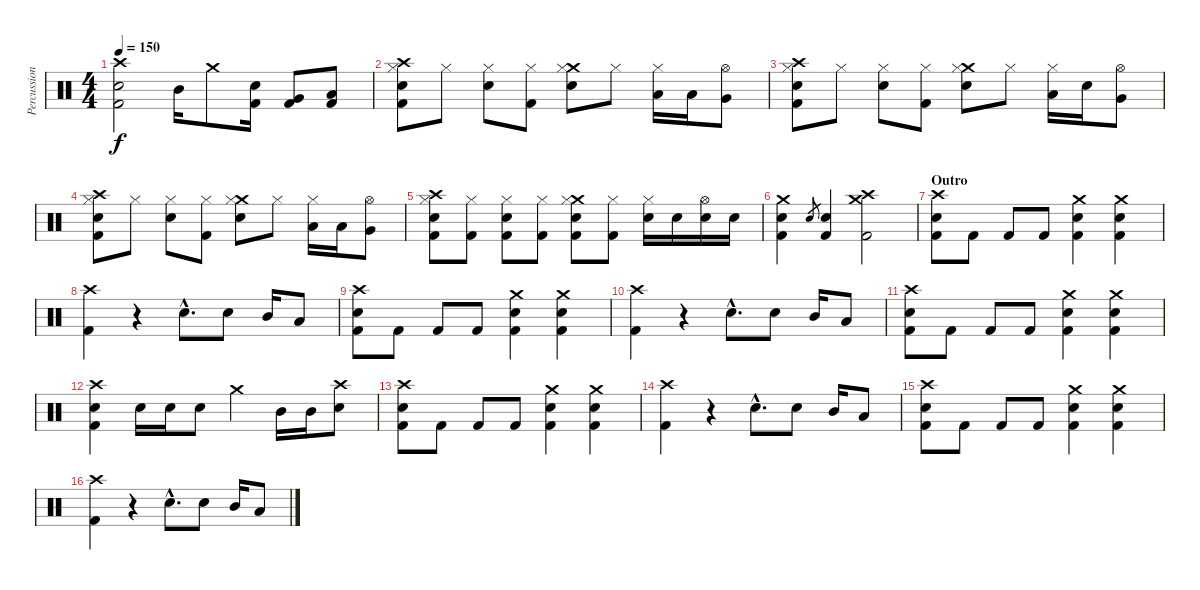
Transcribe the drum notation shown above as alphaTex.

\track ("Percussioni" "Percussion") {instrument percussion}
\staff {score}
\articulation defaults
\ts (4 4)
\tempo 150
\clef neutral
\ks c
("Crash high (hit)" "Snare (hit) 2" "Kick (hit) 2").2{dy f} "Mid Tom (hit)".16 "Crash medium (hit)".8 ("Snare (hit) 2" "Kick (hit) 2").16 ("Very Low Tom (hit)" "Kick (hit) 2").8 ("Low Tom (hit)" "Kick (hit) 2").8 |
("Crash high (hit)" "Snare (hit) 2" "Kick (hit) 2" "Hi-Hat (closed)").8 "Hi-Hat (closed)".8 ("Snare (hit) 2" "Hi-Hat (closed)").8 ("Kick (hit) 2" "Hi-Hat (closed)").8 ("Crash medium (hit)" "Snare (hit) 2" "Hi-Hat (closed)").8 "Hi-Hat (closed)".8 ("Low Tom (hit)" "Hi-Hat (closed)").16 "Low Tom (hit)".16 ("Very Low Tom (hit)" "Hi-Hat (open)").8 |
("Crash high (hit)" "Snare (hit) 2" "Kick (hit) 2" "Hi-Hat (closed)").8 "Hi-Hat (closed)".8 ("Snare (hit) 2" "Hi-Hat (closed)").8 ("Kick (hit) 2" "Hi-Hat (closed)").8 ("Crash medium (hit)" "Snare (hit) 2" "Hi-Hat (closed)").8 "Hi-Hat (closed)".8 ("Low Tom (hit)" "Hi-Hat (closed)").16 "Snare (hit) 2".16 ("Very Low Tom (hit)" "Hi-Hat (open)").8 |
("Crash high (hit)" "Snare (hit) 2" "Kick (hit) 2" "Hi-Hat (closed)").8 "Hi-Hat (closed)".8 ("Snare (hit) 2" "Hi-Hat (closed)").8 ("Kick (hit) 2" "Hi-Hat (closed)").8 ("Crash medium (hit)" "Snare (hit) 2" "Hi-Hat (closed)").8 "Hi-Hat (closed)".8 ("Low Tom (hit)" "Hi-Hat (closed)").16 "Low Tom (hit)".16 ("Very Low Tom (hit)" "Hi-Hat (open)").8 |
("Crash high (hit)" "Snare (hit) 2" "Kick (hit) 2" "Hi-Hat (closed)").8 ("Kick (hit) 2" "Hi-Hat (closed)").8 ("Snare (hit) 2" "Kick (hit) 2" "Hi-Hat (closed)").8 ("Kick (hit) 2" "Hi-Hat (closed)").8 ("Crash medium (hit)" "Snare (hit) 2" "Kick (hit) 2" "Hi-Hat (closed)").8 ("Kick (hit) 2" "Hi-Hat (closed)").8 ("Snare (hit) 2" "Hi-Hat (closed)").16 "Snare (hit) 2".16 ("Snare (hit) 2" "Hi-Hat (open)").16 "Snare (hit) 2".16 |
("Crash medium (hit)" "Snare (hit) 2" "Kick (hit) 2").4 "Snare (hit) 2".8{gr} ("Snare (hit) 2" "Kick (hit) 2").4 ("Crash medium (hit)" "Crash high (hit)" "Kick (hit) 2").2 |
\section ("" "Outro")
("Crash high (hit)" "Snare (hit) 2" "Kick (hit) 2").8 "Kick (hit) 2".8 "Kick (hit) 2".8 "Kick (hit) 2".8 ("Crash medium (hit)" "Snare (hit) 2" "Kick (hit) 2").4 ("Crash medium (hit)" "Snare (hit) 2" "Kick (hit) 2").4 |
("Crash high (hit)" "Kick (hit) 2").4 r.4 "Snare (hit) 2"{hac}.8{d} "Snare (hit) 2".8 "Mid Tom (hit)".16 "Low Tom (hit)".8 |
("Crash high (hit)" "Snare (hit) 2" "Kick (hit) 2").8 "Kick (hit) 2".8 "Kick (hit) 2".8 "Kick (hit) 2".8 ("Crash medium (hit)" "Snare (hit) 2" "Kick (hit) 2").4 ("Crash medium (hit)" "Snare (hit) 2" "Kick (hit) 2").4 |
("Crash high (hit)" "Kick (hit) 2").4 r.4 "Snare (hit) 2"{hac}.8{d} "Snare (hit) 2".8 "Mid Tom (hit)".16 "Low Tom (hit)".8 |
("Crash high (hit)" "Snare (hit) 2" "Kick (hit) 2").8 "Kick (hit) 2".8 "Kick (hit) 2".8 "Kick (hit) 2".8 ("Crash medium (hit)" "Snare (hit) 2" "Kick (hit) 2").4 ("Crash medium (hit)" "Snare (hit) 2" "Kick (hit) 2").4 |
("Crash high (hit)" "Snare (hit) 2" "Kick (hit) 2").4 "Snare (hit) 2".16 "Snare (hit) 2".16 "Snare (hit) 2".8 "Crash medium (hit)".4 "Mid Tom (hit)".16 "Mid Tom (hit)".16 ("Crash high (hit)" "Snare (hit) 2").8 |
("Crash high (hit)" "Snare (hit) 2" "Kick (hit) 2").8 "Kick (hit) 2".8 "Kick (hit) 2".8 "Kick (hit) 2".8 ("Crash medium (hit)" "Snare (hit) 2" "Kick (hit) 2").4 ("Crash medium (hit)" "Snare (hit) 2" "Kick (hit) 2").4 |
("Crash high (hit)" "Kick (hit) 2").4 r.4 "Snare (hit) 2"{hac}.8{d} "Snare (hit) 2".8 "Mid Tom (hit)".16 "Low Tom (hit)".8 |
("Crash high (hit)" "Snare (hit) 2" "Kick (hit) 2").8 "Kick (hit) 2".8 "Kick (hit) 2".8 "Kick (hit) 2".8 ("Crash medium (hit)" "Snare (hit) 2" "Kick (hit) 2").4 ("Crash medium (hit)" "Snare (hit) 2" "Kick (hit) 2").4 |
("Crash high (hit)" "Kick (hit) 2").4 r.4 "Snare (hit) 2"{hac}.8{d} "Snare (hit) 2".8 "Mid Tom (hit)".16 "Low Tom (hit)".8
